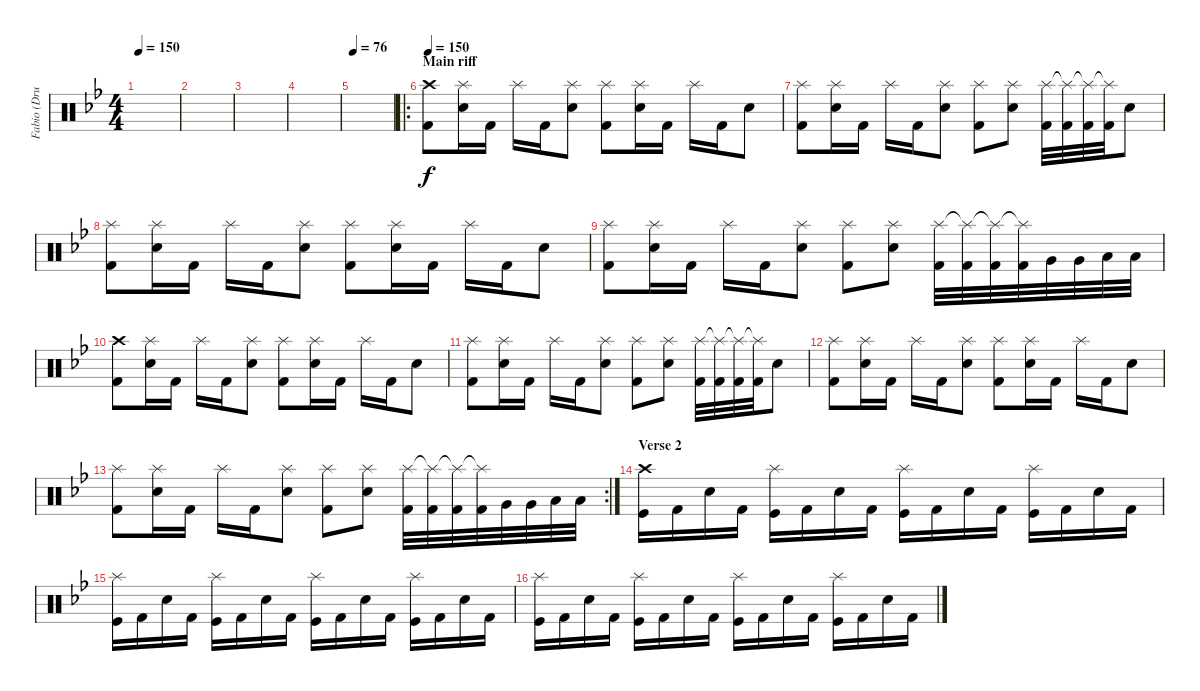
\track ("Fabio (Drums)" "Fabio (Dru") {instrument percussion}
\staff {score}
\articulation defaults
\ts (4 4)
\tempo 150
\clef neutral
\ks gminor
|
|
|
|
\tempo 76
|
\ro
\section ("" "Main riff")
\tempo 150
("Kick (hit) 2" "Crash high (hit)").8 ("Snare (hit) 2" "Splash (hit)").16 "Kick (hit) 2".16 "Splash (hit)".16 "Kick (hit) 2".16 ("Snare (hit) 2" "Splash (hit)").8 ("Kick (hit) 2" "Splash (hit)").8 ("Snare (hit) 2" "Splash (hit)").16 "Kick (hit) 2".16 "Splash (hit)".16 "Kick (hit) 2".16 "Snare (hit) 2".8 |
("Kick (hit) 2" "Splash (hit)").8 ("Snare (hit) 2" "Splash (hit)").16 "Kick (hit) 2".16 "Splash (hit)".16 "Kick (hit) 2".16 ("Snare (hit) 2" "Splash (hit)").8 ("Kick (hit) 2" "Splash (hit)").8 ("Snare (hit) 2" "Splash (hit)").8 ("Kick (hit) 2" "Splash (hit)").32 ("Kick (hit) 2" "Splash (hit)"{t}).32 ("Kick (hit) 2" "Splash (hit)"{t}).32 ("Kick (hit) 2" "Splash (hit)"{t}).32 "Snare (hit) 2".8 |
("Kick (hit) 2" "Splash (hit)").8 ("Snare (hit) 2" "Splash (hit)").16 "Kick (hit) 2".16 "Splash (hit)".16 "Kick (hit) 2".16 ("Snare (hit) 2" "Splash (hit)").8 ("Kick (hit) 2" "Splash (hit)").8 ("Snare (hit) 2" "Splash (hit)").16 "Kick (hit) 2".16 "Splash (hit)".16 "Kick (hit) 2".16 "Snare (hit) 2".8 |
("Kick (hit) 2" "Splash (hit)").8 ("Snare (hit) 2" "Splash (hit)").16 "Kick (hit) 2".16 "Splash (hit)".16 "Kick (hit) 2".16 ("Snare (hit) 2" "Splash (hit)").8 ("Kick (hit) 2" "Splash (hit)").8 ("Snare (hit) 2" "Splash (hit)").8 ("Kick (hit) 2" "Splash (hit)").32 ("Kick (hit) 2" "Splash (hit)"{t}).32 ("Kick (hit) 2" "Splash (hit)"{t}).32 ("Kick (hit) 2" "Splash (hit)"{t}).32 "Very Low Tom (hit)".32 "Very Low Tom (hit)".32 "Low Floor Tom (hit)".32 "Low Floor Tom (hit)".32 |
("Kick (hit) 2" "Crash high (hit)").8 ("Snare (hit) 2" "Splash (hit)").16 "Kick (hit) 2".16 "Splash (hit)".16 "Kick (hit) 2".16 ("Snare (hit) 2" "Splash (hit)").8 ("Kick (hit) 2" "Splash (hit)").8 ("Snare (hit) 2" "Splash (hit)").16 "Kick (hit) 2".16 "Splash (hit)".16 "Kick (hit) 2".16 "Snare (hit) 2".8 |
("Kick (hit) 2" "Splash (hit)").8 ("Snare (hit) 2" "Splash (hit)").16 "Kick (hit) 2".16 "Splash (hit)".16 "Kick (hit) 2".16 ("Snare (hit) 2" "Splash (hit)").8 ("Kick (hit) 2" "Splash (hit)").8 ("Snare (hit) 2" "Splash (hit)").8 ("Kick (hit) 2" "Splash (hit)").32 ("Kick (hit) 2" "Splash (hit)"{t}).32 ("Kick (hit) 2" "Splash (hit)"{t}).32 ("Kick (hit) 2" "Splash (hit)"{t}).32 "Snare (hit) 2".8 |
("Kick (hit) 2" "Splash (hit)").8 ("Snare (hit) 2" "Splash (hit)").16 "Kick (hit) 2".16 "Splash (hit)".16 "Kick (hit) 2".16 ("Snare (hit) 2" "Splash (hit)").8 ("Kick (hit) 2" "Splash (hit)").8 ("Snare (hit) 2" "Splash (hit)").16 "Kick (hit) 2".16 "Splash (hit)".16 "Kick (hit) 2".16 "Snare (hit) 2".8 |
\rc 2
("Kick (hit) 2" "Splash (hit)").8 ("Snare (hit) 2" "Splash (hit)").16 "Kick (hit) 2".16 "Splash (hit)".16 "Kick (hit) 2".16 ("Snare (hit) 2" "Splash (hit)").8 ("Kick (hit) 2" "Splash (hit)").8 ("Snare (hit) 2" "Splash (hit)").8 ("Kick (hit) 2" "Splash (hit)").32 ("Kick (hit) 2" "Splash (hit)"{t}).32 ("Kick (hit) 2" "Splash (hit)"{t}).32 ("Kick (hit) 2" "Splash (hit)"{t}).32 "Very Low Tom (hit)".32 "Very Low Tom (hit)".32 "Low Floor Tom (hit)".32 "Low Floor Tom (hit)".32 |
\section ("" "Verse 2")
("Crash high (hit)" "Kick (hit)").16 "Kick (hit) 2".16 "Snare (hit) 2".16 "Kick (hit) 2".16 ("Splash (hit)" "Kick (hit)").16 "Kick (hit) 2".16 "Snare (hit) 2".16 "Kick (hit) 2".16 ("Splash (hit)" "Kick (hit)").16 "Kick (hit) 2".16 "Snare (hit) 2".16 "Kick (hit) 2".16 ("Splash (hit)" "Kick (hit)").16 "Kick (hit) 2".16 "Snare (hit) 2".16 "Kick (hit) 2".16 |
("Splash (hit)" "Kick (hit)").16 "Kick (hit) 2".16 "Snare (hit) 2".16 "Kick (hit) 2".16 ("Splash (hit)" "Kick (hit)").16 "Kick (hit) 2".16 "Snare (hit) 2".16 "Kick (hit) 2".16 ("Splash (hit)" "Kick (hit)").16 "Kick (hit) 2".16 "Snare (hit) 2".16 "Kick (hit) 2".16 ("Splash (hit)" "Kick (hit)").16 "Kick (hit) 2".16 "Snare (hit) 2".16 "Kick (hit) 2".16 |
("Splash (hit)" "Kick (hit)").16 "Kick (hit) 2".16 "Snare (hit) 2".16 "Kick (hit) 2".16 ("Splash (hit)" "Kick (hit)").16 "Kick (hit) 2".16 "Snare (hit) 2".16 "Kick (hit) 2".16 ("Splash (hit)" "Kick (hit)").16 "Kick (hit) 2".16 "Snare (hit) 2".16 "Kick (hit) 2".16 ("Splash (hit)" "Kick (hit)").16 "Kick (hit) 2".16 "Snare (hit) 2".16 "Kick (hit) 2".16
